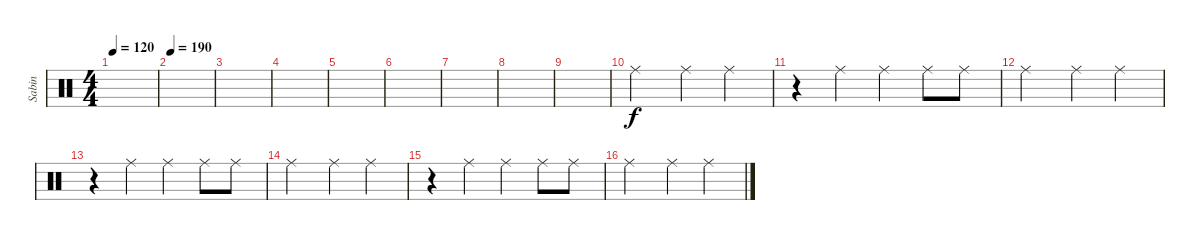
\track ("Sabin" "Sabin") {instrument percussion}
\staff {score}
\articulation defaults
\ts (4 4)
\tempo 120
\clef neutral
\ks c
|
\tempo 190
|
|
|
|
|
|
|
|
"Ride (middle)".2 "Ride (middle)".4 "Ride (middle)".4 |
r.4 "Ride (middle)".4 "Ride (middle)".4 "Ride (middle)".8 "Ride (middle)".8 |
"Ride (middle)".2 "Ride (middle)".4 "Ride (middle)".4 |
r.4 "Ride (middle)".4 "Ride (middle)".4 "Ride (middle)".8 "Ride (middle)".8 |
"Ride (middle)".2 "Ride (middle)".4 "Ride (middle)".4 |
r.4 "Ride (middle)".4 "Ride (middle)".4 "Ride (middle)".8 "Ride (middle)".8 |
"Ride (middle)".2 "Ride (middle)".4 "Ride (middle)".4
